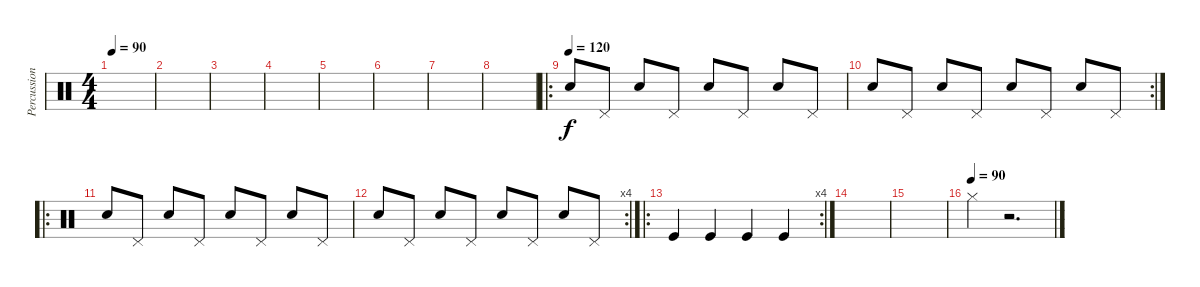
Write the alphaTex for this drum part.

\track ("Percussions" "Percussion") {instrument percussion}
\staff {score}
\articulation defaults
\ts (4 4)
\tempo 90
\clef neutral
\ks c
|
|
|
|
|
|
|
|
\ro
\tempo (120)
"Snare (hit) 2".8 "Pedal Hi-Hat (hit)".8 "Snare (hit) 2".8 "Pedal Hi-Hat (hit)".8 "Snare (hit) 2".8 "Pedal Hi-Hat (hit)".8 "Snare (hit) 2".8 "Pedal Hi-Hat (hit)".8 |
\rc 2 "Snare (hit) 2".8 "Pedal Hi-Hat (hit)".8 "Snare (hit) 2".8 "Pedal Hi-Hat (hit)".8 "Snare (hit) 2".8 "Pedal Hi-Hat (hit)".8 "Snare (hit) 2".8 "Pedal Hi-Hat (hit)".8
|
\ro "Snare (hit) 2".8 "Pedal Hi-Hat (hit)".8 "Snare (hit) 2".8 "Pedal Hi-Hat (hit)".8 "Snare (hit) 2".8 "Pedal Hi-Hat (hit)".8 "Snare (hit) 2".8 "Pedal Hi-Hat (hit)".8
|
\rc 4 "Snare (hit) 2".8 "Pedal Hi-Hat (hit)".8 "Snare (hit) 2".8 "Pedal Hi-Hat (hit)".8 "Snare (hit) 2".8 "Pedal Hi-Hat (hit)".8 "Snare (hit) 2".8 "Pedal Hi-Hat (hit)".8
|
\ro
\rc 4 "Kick (hit)".4 "Kick (hit)".4 "Kick (hit)".4 "Kick (hit)".4
|
|
|
\tempo (90)
"Hi-Hat (closed)".4 r.2{d}
